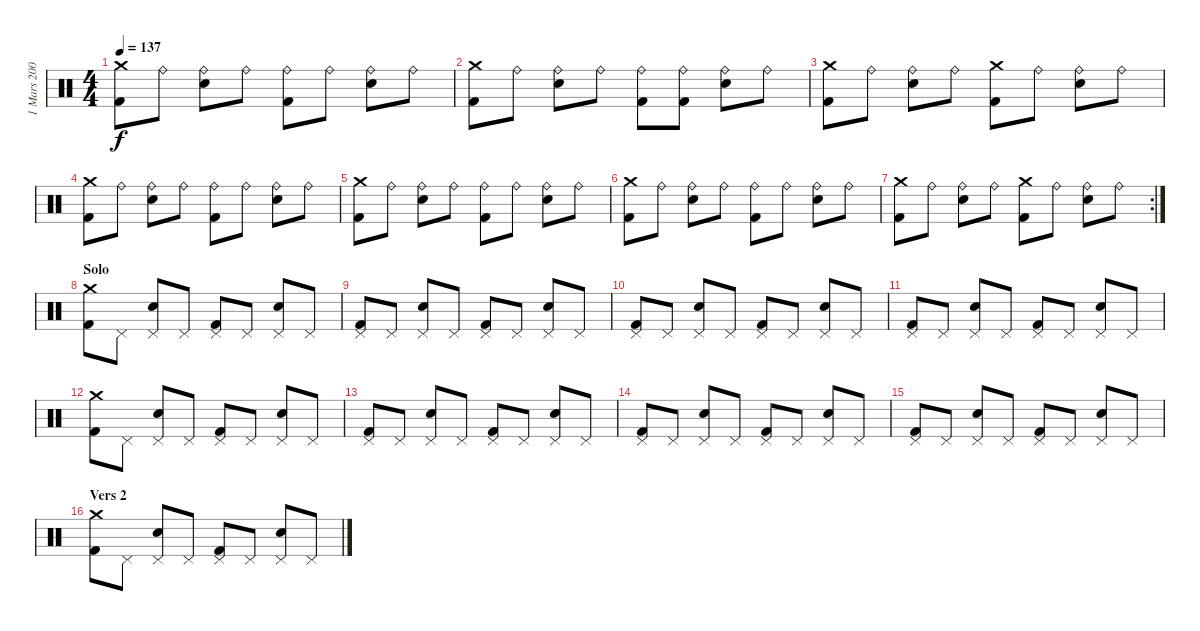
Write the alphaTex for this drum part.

\track ("1 Mars 2004" "1 Mars 200") {instrument percussion}
\staff {score}
\articulation defaults
\ts (4 4)
\tempo 137
\clef neutral
\ks c
("Crash medium (hit)" "Kick (hit) 2").8{dy f} "Ride (bell)".8 ("Ride (bell)" "Electric Snare (hit)").8 "Ride (bell)".8 ("Ride (bell)" "Kick (hit) 2").8 "Ride (bell)".8 ("Ride (bell)" "Electric Snare (hit)").8 "Ride (bell)".8 |
("Crash medium (hit)" "Kick (hit) 2").8 "Ride (bell)".8 ("Ride (bell)" "Electric Snare (hit)").8 "Ride (bell)".8 ("Ride (bell)" "Kick (hit) 2").8 ("Ride (bell)" "Kick (hit) 2").8 ("Ride (bell)" "Electric Snare (hit)").8 "Ride (bell)".8 |
("Crash medium (hit)" "Kick (hit) 2").8 "Ride (bell)".8 ("Ride (bell)" "Electric Snare (hit)").8 "Ride (bell)".8 ("Crash medium (hit)" "Kick (hit) 2").8 "Ride (bell)".8 ("Ride (bell)" "Electric Snare (hit)").8 "Ride (bell)".8 |
("Crash medium (hit)" "Kick (hit) 2").8 "Ride (bell)".8 ("Ride (bell)" "Electric Snare (hit)").8 "Ride (bell)".8 ("Ride (bell)" "Kick (hit) 2").8 "Ride (bell)".8 ("Ride (bell)" "Electric Snare (hit)").8 "Ride (bell)".8 |
("Crash medium (hit)" "Kick (hit) 2").8 "Ride (bell)".8 ("Ride (bell)" "Electric Snare (hit)").8 "Ride (bell)".8 ("Ride (bell)" "Kick (hit) 2").8 "Ride (bell)".8 ("Ride (bell)" "Electric Snare (hit)").8 "Ride (bell)".8 |
("Crash medium (hit)" "Kick (hit) 2").8 "Ride (bell)".8 ("Ride (bell)" "Electric Snare (hit)").8 "Ride (bell)".8 ("Ride (bell)" "Kick (hit) 2").8 "Ride (bell)".8 ("Ride (bell)" "Electric Snare (hit)").8 "Ride (bell)".8 |
\rc 2
("Crash medium (hit)" "Kick (hit) 2").8 "Ride (bell)".8 ("Ride (bell)" "Electric Snare (hit)").8 "Ride (bell)".8 ("Crash medium (hit)" "Kick (hit) 2").8 "Ride (bell)".8 ("Ride (bell)" "Electric Snare (hit)").8 "Ride (bell)".8 |
\section ("" "Solo")
("Crash medium (hit)" "Kick (hit) 2").8 "Pedal Hi-Hat (hit)".8 ("Pedal Hi-Hat (hit)" "Electric Snare (hit)").8 "Pedal Hi-Hat (hit)".8 ("Pedal Hi-Hat (hit)" "Kick (hit) 2").8 "Pedal Hi-Hat (hit)".8 ("Pedal Hi-Hat (hit)" "Electric Snare (hit)").8 "Pedal Hi-Hat (hit)".8 |
("Pedal Hi-Hat (hit)" "Kick (hit) 2").8 "Pedal Hi-Hat (hit)".8 ("Pedal Hi-Hat (hit)" "Electric Snare (hit)").8 "Pedal Hi-Hat (hit)".8 ("Pedal Hi-Hat (hit)" "Kick (hit) 2").8 "Pedal Hi-Hat (hit)".8 ("Pedal Hi-Hat (hit)" "Electric Snare (hit)").8 "Pedal Hi-Hat (hit)".8 |
("Pedal Hi-Hat (hit)" "Kick (hit) 2").8 "Pedal Hi-Hat (hit)".8 ("Pedal Hi-Hat (hit)" "Electric Snare (hit)").8 "Pedal Hi-Hat (hit)".8 ("Pedal Hi-Hat (hit)" "Kick (hit) 2").8 "Pedal Hi-Hat (hit)".8 ("Pedal Hi-Hat (hit)" "Electric Snare (hit)").8 "Pedal Hi-Hat (hit)".8 |
("Pedal Hi-Hat (hit)" "Kick (hit) 2").8 "Pedal Hi-Hat (hit)".8 ("Pedal Hi-Hat (hit)" "Electric Snare (hit)").8 "Pedal Hi-Hat (hit)".8 ("Pedal Hi-Hat (hit)" "Kick (hit) 2").8 "Pedal Hi-Hat (hit)".8 ("Pedal Hi-Hat (hit)" "Electric Snare (hit)").8 "Pedal Hi-Hat (hit)".8 |
("Crash medium (hit)" "Kick (hit) 2").8 "Pedal Hi-Hat (hit)".8 ("Pedal Hi-Hat (hit)" "Electric Snare (hit)").8 "Pedal Hi-Hat (hit)".8 ("Pedal Hi-Hat (hit)" "Kick (hit) 2").8 "Pedal Hi-Hat (hit)".8 ("Pedal Hi-Hat (hit)" "Electric Snare (hit)").8 "Pedal Hi-Hat (hit)".8 |
("Pedal Hi-Hat (hit)" "Kick (hit) 2").8 "Pedal Hi-Hat (hit)".8 ("Pedal Hi-Hat (hit)" "Electric Snare (hit)").8 "Pedal Hi-Hat (hit)".8 ("Pedal Hi-Hat (hit)" "Kick (hit) 2").8 "Pedal Hi-Hat (hit)".8 ("Pedal Hi-Hat (hit)" "Electric Snare (hit)").8 "Pedal Hi-Hat (hit)".8 |
("Pedal Hi-Hat (hit)" "Kick (hit) 2").8 "Pedal Hi-Hat (hit)".8 ("Pedal Hi-Hat (hit)" "Electric Snare (hit)").8 "Pedal Hi-Hat (hit)".8 ("Pedal Hi-Hat (hit)" "Kick (hit) 2").8 "Pedal Hi-Hat (hit)".8 ("Pedal Hi-Hat (hit)" "Electric Snare (hit)").8 "Pedal Hi-Hat (hit)".8 |
("Pedal Hi-Hat (hit)" "Kick (hit) 2").8 "Pedal Hi-Hat (hit)".8 ("Pedal Hi-Hat (hit)" "Electric Snare (hit)").8 "Pedal Hi-Hat (hit)".8 ("Pedal Hi-Hat (hit)" "Kick (hit) 2").8 "Pedal Hi-Hat (hit)".8 ("Pedal Hi-Hat (hit)" "Electric Snare (hit)").8 "Pedal Hi-Hat (hit)".8 |
\section ("" "Vers 2")
("Crash medium (hit)" "Kick (hit) 2").8 "Pedal Hi-Hat (hit)".8 ("Pedal Hi-Hat (hit)" "Electric Snare (hit)").8 "Pedal Hi-Hat (hit)".8 ("Pedal Hi-Hat (hit)" "Kick (hit) 2").8 "Pedal Hi-Hat (hit)".8 ("Pedal Hi-Hat (hit)" "Electric Snare (hit)").8 "Pedal Hi-Hat (hit)".8
